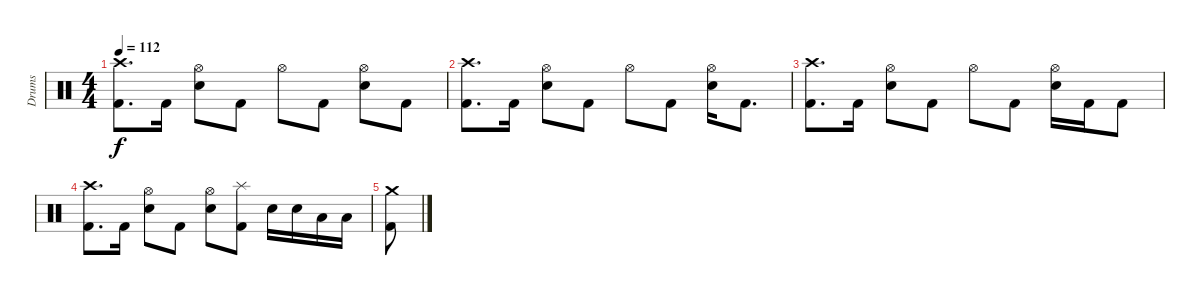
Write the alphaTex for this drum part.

\track ("Drums" "Drums") {instrument percussion}
\staff {score}
\articulation defaults
\ts (4 4)
\tempo 112
\clef neutral
\ks c
("Crash high (hit)" "Kick (hit) 2").8{d dy f} "Kick (hit) 2".16 ("Hi-Hat (open)" "Electric Snare (hit)").8 "Kick (hit) 2".8 "Hi-Hat (open)".8 "Kick (hit) 2".8 ("Hi-Hat (open)" "Electric Snare (hit)").8 "Kick (hit) 2".8 |
("Crash high (hit)" "Kick (hit) 2").8{d} "Kick (hit) 2".16 ("Hi-Hat (open)" "Electric Snare (hit)").8 "Kick (hit) 2".8 "Hi-Hat (open)".8 "Kick (hit) 2".8 ("Hi-Hat (open)" "Electric Snare (hit)").16 "Kick (hit) 2".8{d} |
("Crash high (hit)" "Kick (hit) 2").8{d} "Kick (hit) 2".16 ("Hi-Hat (open)" "Electric Snare (hit)").8 "Kick (hit) 2".8 "Hi-Hat (open)".8 "Kick (hit) 2".8 ("Hi-Hat (open)" "Electric Snare (hit)").16 "Kick (hit) 2".16 "Kick (hit) 2".8 |
("Crash high (hit)" "Kick (hit) 2").8{d} "Kick (hit) 2".16 ("Hi-Hat (open)" "Electric Snare (hit)").8 "Kick (hit) 2".8 ("Hi-Hat (open)" "Electric Snare (hit)").8 ("Splash (hit)" "Kick (hit) 2").8 "Electric Snare (hit)".16 "Electric Snare (hit)".16 "Low Tom (hit)".16 "Low Tom (hit)".16 |
("Crash medium (hit)" "Kick (hit) 2").8
